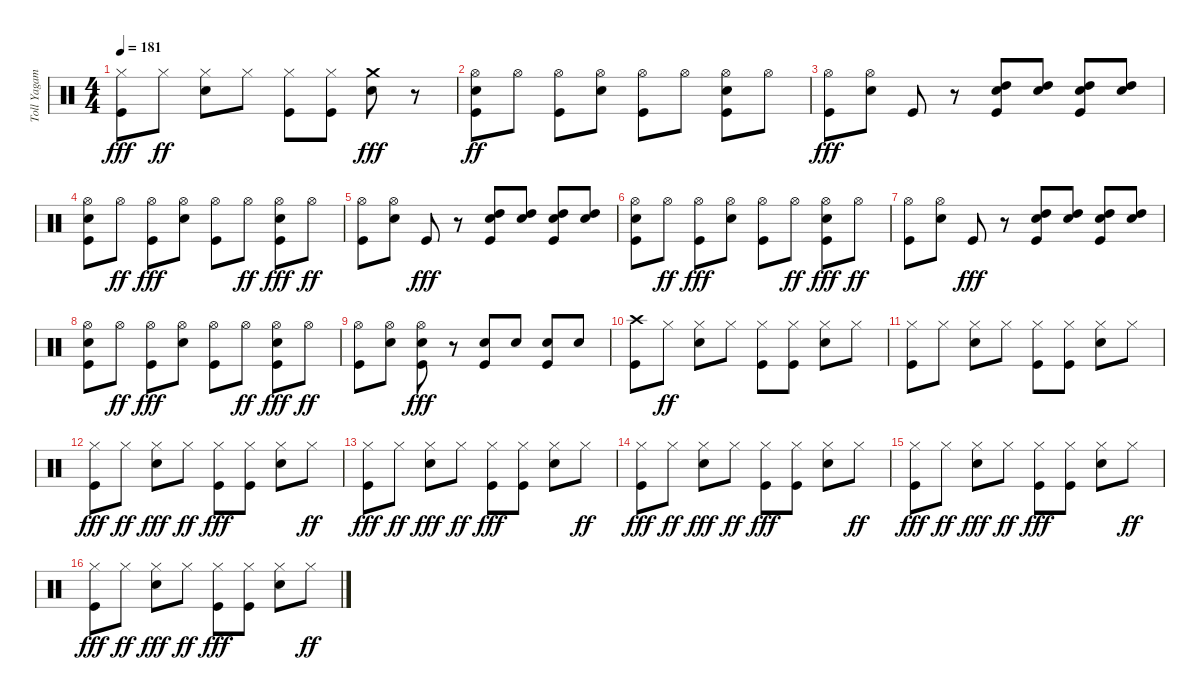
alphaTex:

\track ("Toll Yagami" "Toll Yagam") {instrument percussion}
\staff {score}
\articulation defaults
\ts (4 4)
\tempo 181
\clef neutral
\ks c
("Hi-Hat (closed)" "Kick (hit)").8{dy fff} "Hi-Hat (closed)".8{dy ff} ("Snare (hit) 2" "Hi-Hat (closed)").8 "Hi-Hat (closed)".8 ("Kick (hit)" "Hi-Hat (closed)").8 ("Kick (hit)" "Hi-Hat (closed)").8 ("Snare (hit) 2" "Crash medium (hit)").8{dy fff} r.8 |
("Kick (hit)" "Snare (hit) 2" "Hi-Hat (open)").8{dy ff} "Hi-Hat (open)".8 ("Kick (hit)" "Hi-Hat (open)").8 ("Snare (hit) 2" "Hi-Hat (open)").8 ("Kick (hit)" "Hi-Hat (open)").8 "Hi-Hat (open)".8 ("Kick (hit)" "Snare (hit) 2" "Hi-Hat (open)").8 "Hi-Hat (open)".8 |
("Hi-Hat (open)" "Kick (hit)").8{dy fff} ("Hi-Hat (open)" "Snare (hit) 2").8 "Kick (hit)".8 r.8 ("Kick (hit)" "Snare (hit) 2" "High Tom (hit)").8 ("Snare (hit) 2" "High Tom (hit)").8 ("Kick (hit)" "Snare (hit) 2" "High Tom (hit)").8 ("Snare (hit) 2" "High Tom (hit)").8 |
("Hi-Hat (open)" "Snare (hit) 2" "Kick (hit)").8 "Hi-Hat (open)".8{dy ff} ("Hi-Hat (open)" "Kick (hit)").8{dy fff} ("Hi-Hat (open)" "Snare (hit) 2").8 ("Hi-Hat (open)" "Kick (hit)").8 "Hi-Hat (open)".8{dy ff} ("Hi-Hat (open)" "Snare (hit) 2" "Kick (hit)").8{dy fff} "Hi-Hat (open)".8{dy ff} |
("Kick (hit)" "Hi-Hat (open)").8 ("Snare (hit) 2" "Hi-Hat (open)").8 "Kick (hit)".8{dy fff} r.8 ("High Tom (hit)" "Snare (hit) 2" "Kick (hit)").8 ("High Tom (hit)" "Snare (hit) 2").8 ("High Tom (hit)" "Snare (hit) 2" "Kick (hit)").8 ("High Tom (hit)" "Snare (hit) 2").8 |
("Hi-Hat (open)" "Snare (hit) 2" "Kick (hit)").8 "Hi-Hat (open)".8{dy ff} ("Hi-Hat (open)" "Kick (hit)").8{dy fff} ("Hi-Hat (open)" "Snare (hit) 2").8 ("Hi-Hat (open)" "Kick (hit)").8 "Hi-Hat (open)".8{dy ff} ("Hi-Hat (open)" "Snare (hit) 2" "Kick (hit)").8{dy fff} "Hi-Hat (open)".8{dy ff} |
("Kick (hit)" "Hi-Hat (open)").8 ("Snare (hit) 2" "Hi-Hat (open)").8 "Kick (hit)".8{dy fff} r.8 ("High Tom (hit)" "Snare (hit) 2" "Kick (hit)").8 ("High Tom (hit)" "Snare (hit) 2").8 ("High Tom (hit)" "Snare (hit) 2" "Kick (hit)").8 ("High Tom (hit)" "Snare (hit) 2").8 |
("Hi-Hat (open)" "Snare (hit) 2" "Kick (hit)").8 "Hi-Hat (open)".8{dy ff} ("Hi-Hat (open)" "Kick (hit)").8{dy fff} ("Hi-Hat (open)" "Snare (hit) 2").8 ("Hi-Hat (open)" "Kick (hit)").8 "Hi-Hat (open)".8{dy ff} ("Hi-Hat (open)" "Snare (hit) 2" "Kick (hit)").8{dy fff} "Hi-Hat (open)".8{dy ff} |
("Kick (hit)" "Hi-Hat (open)").8 ("Snare (hit) 2" "Hi-Hat (open)").8 ("Kick (hit)" "Hi-Hat (open)" "Snare (hit) 2").8{dy fff} r.8 ("Snare (hit) 2" "Kick (hit)").8 "Snare (hit) 2".8 ("Snare (hit) 2" "Kick (hit)").8 "Snare (hit) 2".8 |
("Kick (hit)" "Crash high (hit)").8 "Hi-Hat (closed)".8{dy ff} ("Snare (hit) 2" "Hi-Hat (closed)").8 "Hi-Hat (closed)".8 ("Kick (hit)" "Hi-Hat (closed)").8 ("Kick (hit)" "Hi-Hat (closed)").8 ("Snare (hit) 2" "Hi-Hat (closed)").8 "Hi-Hat (closed)".8 |
("Kick (hit)" "Hi-Hat (closed)").8 "Hi-Hat (closed)".8 ("Snare (hit) 2" "Hi-Hat (closed)").8 "Hi-Hat (closed)".8 ("Kick (hit)" "Hi-Hat (closed)").8 ("Kick (hit)" "Hi-Hat (closed)").8 ("Snare (hit) 2" "Hi-Hat (closed)").8 "Hi-Hat (closed)".8 |
("Hi-Hat (closed)" "Kick (hit)").8{dy fff} "Hi-Hat (closed)".8{dy ff} ("Hi-Hat (closed)" "Snare (hit) 2").8{dy fff} "Hi-Hat (closed)".8{dy ff} ("Hi-Hat (closed)" "Kick (hit)").8{dy fff} ("Hi-Hat (closed)" "Kick (hit)").8 ("Hi-Hat (closed)" "Snare (hit) 2").8 "Hi-Hat (closed)".8{dy ff} |
("Hi-Hat (closed)" "Kick (hit)").8{dy fff} "Hi-Hat (closed)".8{dy ff} ("Hi-Hat (closed)" "Snare (hit) 2").8{dy fff} "Hi-Hat (closed)".8{dy ff} ("Hi-Hat (closed)" "Kick (hit)").8{dy fff} ("Hi-Hat (closed)" "Kick (hit)").8 ("Hi-Hat (closed)" "Snare (hit) 2").8 "Hi-Hat (closed)".8{dy ff} |
("Hi-Hat (closed)" "Kick (hit)").8{dy fff} "Hi-Hat (closed)".8{dy ff} ("Hi-Hat (closed)" "Snare (hit) 2").8{dy fff} "Hi-Hat (closed)".8{dy ff} ("Hi-Hat (closed)" "Kick (hit)").8{dy fff} ("Hi-Hat (closed)" "Kick (hit)").8 ("Hi-Hat (closed)" "Snare (hit) 2").8 "Hi-Hat (closed)".8{dy ff} |
("Hi-Hat (closed)" "Kick (hit)").8{dy fff} "Hi-Hat (closed)".8{dy ff} ("Hi-Hat (closed)" "Snare (hit) 2").8{dy fff} "Hi-Hat (closed)".8{dy ff} ("Hi-Hat (closed)" "Kick (hit)").8{dy fff} ("Hi-Hat (closed)" "Kick (hit)").8 ("Hi-Hat (closed)" "Snare (hit) 2").8 "Hi-Hat (closed)".8{dy ff} |
("Hi-Hat (closed)" "Kick (hit)").8{dy fff} "Hi-Hat (closed)".8{dy ff} ("Hi-Hat (closed)" "Snare (hit) 2").8{dy fff} "Hi-Hat (closed)".8{dy ff} ("Hi-Hat (closed)" "Kick (hit)").8{dy fff} ("Hi-Hat (closed)" "Kick (hit)").8 ("Hi-Hat (closed)" "Snare (hit) 2").8 "Hi-Hat (closed)".8{dy ff}
